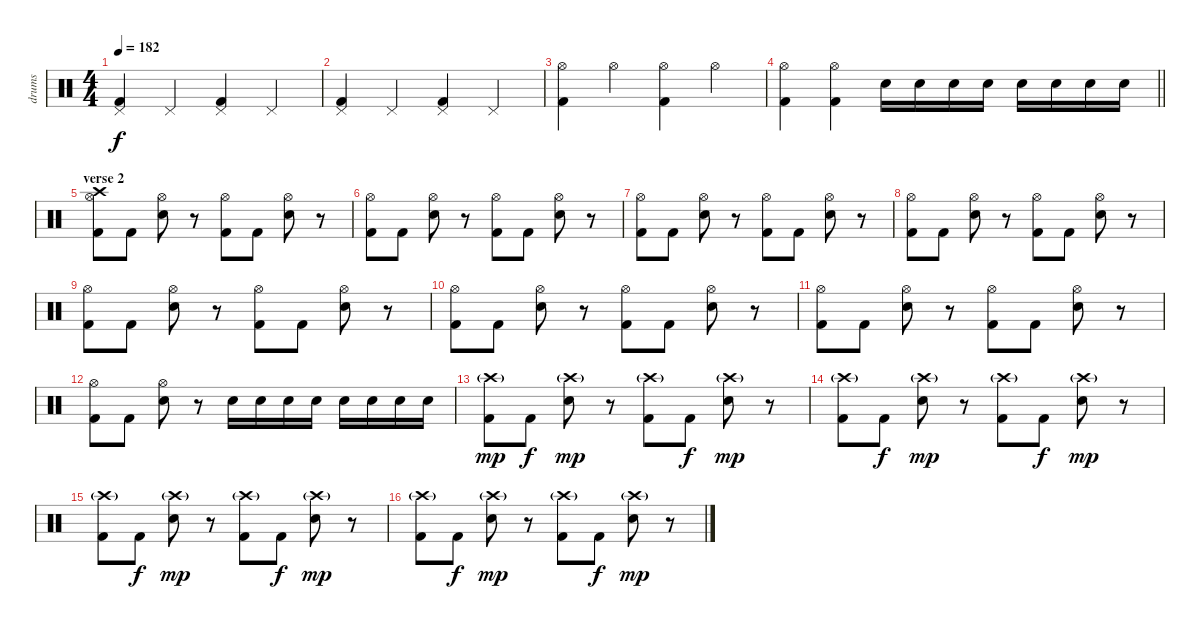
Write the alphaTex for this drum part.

\track ("drums" "drums") {instrument percussion}
\staff {score}
\articulation defaults
\ts (4 4)
\tempo 182
\clef neutral
\ks c
("Kick (hit) 2" "Pedal Hi-Hat (hit)").4{dy f} "Pedal Hi-Hat (hit)".4 ("Kick (hit) 2" "Pedal Hi-Hat (hit)").4 "Pedal Hi-Hat (hit)".4 |
("Kick (hit) 2" "Pedal Hi-Hat (hit)").4 "Pedal Hi-Hat (hit)".4 ("Kick (hit) 2" "Pedal Hi-Hat (hit)").4 "Pedal Hi-Hat (hit)".4 |
("Kick (hit) 2" "Hi-Hat (open)").4 "Hi-Hat (open)".4 ("Kick (hit) 2" "Hi-Hat (open)").4 "Hi-Hat (open)".4 |
\barLineRight lightlight
("Kick (hit) 2" "Hi-Hat (open)").4 ("Kick (hit) 2" "Hi-Hat (open)").4 "Electric Snare (hit)".16 "Electric Snare (hit)".16 "Electric Snare (hit)".16 "Electric Snare (hit)".16 "Electric Snare (hit)".16 "Electric Snare (hit)".16 "Electric Snare (hit)".16 "Electric Snare (hit)".16 |
\section ("" "verse 2")
("Kick (hit) 2" "Hi-Hat (open)" "Crash high (hit)").8 "Kick (hit) 2".8 ("Electric Snare (hit)" "Hi-Hat (open)").8 r.8 ("Kick (hit) 2" "Hi-Hat (open)").8 "Kick (hit) 2".8 ("Electric Snare (hit)" "Hi-Hat (open)").8 r.8 |
("Kick (hit) 2" "Hi-Hat (open)").8 "Kick (hit) 2".8 ("Electric Snare (hit)" "Hi-Hat (open)").8 r.8 ("Kick (hit) 2" "Hi-Hat (open)").8 "Kick (hit) 2".8 ("Electric Snare (hit)" "Hi-Hat (open)").8 r.8 |
("Kick (hit) 2" "Hi-Hat (open)").8 "Kick (hit) 2".8 ("Electric Snare (hit)" "Hi-Hat (open)").8 r.8 ("Kick (hit) 2" "Hi-Hat (open)").8 "Kick (hit) 2".8 ("Electric Snare (hit)" "Hi-Hat (open)").8 r.8 |
("Kick (hit) 2" "Hi-Hat (open)").8 "Kick (hit) 2".8 ("Electric Snare (hit)" "Hi-Hat (open)").8 r.8 ("Kick (hit) 2" "Hi-Hat (open)").8 "Kick (hit) 2".8 ("Electric Snare (hit)" "Hi-Hat (open)").8 r.8 |
("Kick (hit) 2" "Hi-Hat (open)").8 "Kick (hit) 2".8 ("Electric Snare (hit)" "Hi-Hat (open)").8 r.8 ("Kick (hit) 2" "Hi-Hat (open)").8 "Kick (hit) 2".8 ("Electric Snare (hit)" "Hi-Hat (open)").8 r.8 |
("Kick (hit) 2" "Hi-Hat (open)").8 "Kick (hit) 2".8 ("Electric Snare (hit)" "Hi-Hat (open)").8 r.8 ("Kick (hit) 2" "Hi-Hat (open)").8 "Kick (hit) 2".8 ("Electric Snare (hit)" "Hi-Hat (open)").8 r.8 |
("Kick (hit) 2" "Hi-Hat (open)").8 "Kick (hit) 2".8 ("Electric Snare (hit)" "Hi-Hat (open)").8 r.8 ("Kick (hit) 2" "Hi-Hat (open)").8 "Kick (hit) 2".8 ("Electric Snare (hit)" "Hi-Hat (open)").8 r.8 |
("Kick (hit) 2" "Hi-Hat (open)").8 "Kick (hit) 2".8 ("Electric Snare (hit)" "Hi-Hat (open)").8 r.8 "Electric Snare (hit)".16 "Electric Snare (hit)".16 "Electric Snare (hit)".16 "Electric Snare (hit)".16 "Electric Snare (hit)".16 "Electric Snare (hit)".16 "Electric Snare (hit)".16 "Electric Snare (hit)".16 |
("Kick (hit) 2" "Crash high (hit)"{g}).8{dy mp} "Kick (hit) 2".8{dy f} ("Electric Snare (hit)" "Crash high (hit)"{g}).8{dy mp} r.8 ("Kick (hit) 2" "Crash high (hit)"{g}).8 "Kick (hit) 2".8{dy f} ("Electric Snare (hit)" "Crash high (hit)"{g}).8{dy mp} r.8 |
("Kick (hit) 2" "Crash high (hit)"{g}).8 "Kick (hit) 2".8{dy f} ("Electric Snare (hit)" "Crash high (hit)"{g}).8{dy mp} r.8 ("Kick (hit) 2" "Crash high (hit)"{g}).8 "Kick (hit) 2".8{dy f} ("Electric Snare (hit)" "Crash high (hit)"{g}).8{dy mp} r.8 |
("Kick (hit) 2" "Crash high (hit)"{g}).8 "Kick (hit) 2".8{dy f} ("Electric Snare (hit)" "Crash high (hit)"{g}).8{dy mp} r.8 ("Kick (hit) 2" "Crash high (hit)"{g}).8 "Kick (hit) 2".8{dy f} ("Electric Snare (hit)" "Crash high (hit)"{g}).8{dy mp} r.8 |
("Kick (hit) 2" "Crash high (hit)"{g}).8 "Kick (hit) 2".8{dy f} ("Electric Snare (hit)" "Crash high (hit)"{g}).8{dy mp} r.8 ("Kick (hit) 2" "Crash high (hit)"{g}).8 "Kick (hit) 2".8{dy f} ("Electric Snare (hit)" "Crash high (hit)"{g}).8{dy mp} r.8
